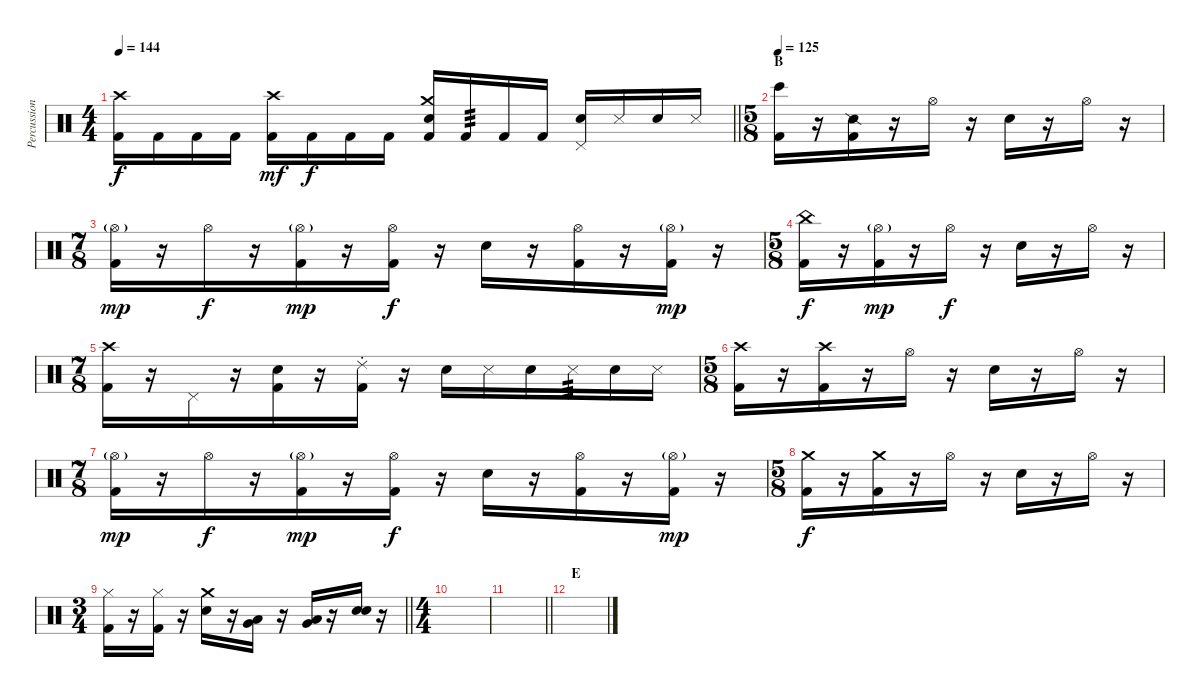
\track ("Percussion" "Percussion") {instrument percussion}
\staff {score}
\articulation defaults
\ts (4 4)
\tempo 144
\clef neutral
\barLineRight lightlight
\ks c
("Crash high (hit)" "Kick (hit) 2").16{dy f} "Kick (hit) 2".16 "Kick (hit) 2".16 "Kick (hit) 2".16 ("Crash high (hit)" "Kick (hit) 2").16{dy mf} "Kick (hit) 2".16{dy f} "Kick (hit) 2".16 "Kick (hit) 2".16 ("Crash medium (hit)" "Snare (hit) 2" "Kick (hit) 2").16 "Kick (hit) 2".16{tp 3} "Kick (hit) 2".16 "Kick (hit) 2".16 ("Pedal Hi-Hat (hit)" "Snare (hit) 2").16 "Metronome (hit)".16 "Snare (hit) 2".16 "Metronome (hit)".16 |
\ts (5 8)
\section ("" "B")
\tempo 125
("Bongo High (hit)" "Kick (hit) 2").16 r.16 ("Snare (side stick) 2" "Kick (hit) 2").16 r.16 "Hi-Hat (open)".16 r.16 "Snare (hit) 2".16 r.16 "Hi-Hat (open)".16 r.16 |
\ts (7 8)
("Hi-Hat (open)"{g} "Kick (hit) 2").16{dy mp} r.16 "Hi-Hat (open)".16{dy f} r.16 ("Hi-Hat (open)"{g} "Kick (hit) 2").16{dy mp} r.16 ("Hi-Hat (open)" "Kick (hit) 2").16{dy f} r.16 "Snare (hit) 2".16 r.16 ("Hi-Hat (open)" "Kick (hit) 2").16 r.16 ("Hi-Hat (open)"{g} "Kick (hit) 2").16{dy mp} r.16 |
\ts (5 8)
("China (hit)" "Kick (hit) 2").16{dy f} r.16 ("Hi-Hat (open)"{g} "Kick (hit) 2").16{dy mp} r.16 "Hi-Hat (open)".16{dy f} r.16 "Snare (hit) 2".16 r.16 "Hi-Hat (open)".16 r.16 |
\ts (7 8)
("Crash high (hit)" "Kick (hit) 2").16 r.16 "Pedal Hi-Hat (hit)".16 r.16 ("Snare (hit)" "Kick (hit) 2").16 r.16 ("Ride (choke) 2" "Kick (hit) 2").16 r.16 "Snare (hit) 2".16 "Metronome (hit)".16 "Snare (hit) 2".16 "Metronome (hit)".16{tp 3} "Snare (hit) 2".16 "Metronome (hit)".16 |
\ts (5 8)
("Crash high (hit)" "Kick (hit) 2").16 r.16 ("Crash high (hit)" "Kick (hit) 2").16 r.16 "Hi-Hat (open)".16 r.16 "Snare (hit) 2".16 r.16 "Hi-Hat (open)".16 r.16 |
\ts (7 8)
("Hi-Hat (open)"{g} "Kick (hit) 2").16{dy mp} r.16 "Hi-Hat (open)".16{dy f} r.16 ("Hi-Hat (open)"{g} "Kick (hit) 2").16{dy mp} r.16 ("Hi-Hat (open)" "Kick (hit) 2").16{dy f} r.16 "Snare (hit) 2".16 r.16 ("Hi-Hat (open)" "Kick (hit) 2").16 r.16 ("Hi-Hat (open)"{g} "Kick (hit) 2").16{dy mp} r.16 |
\ts (5 8)
("Crash medium (hit)" "Kick (hit) 2").16{dy f} r.16 ("Crash medium (hit)" "Kick (hit) 2").16 r.16 "Hi-Hat (open)".16 r.16 "Snare (hit) 2".16 r.16 "Hi-Hat (open)".16 r.16 |
\ts (3 4)
\barLineRight lightlight
("Hi-Hat (closed)" "Kick (hit) 2").16 r.16 ("Hi-Hat (closed)" "Kick (hit) 2").16 r.16 ("Crash medium (hit)" "Snare (hit) 2").16 r.16 ("Low Tom (hit)" "Very Low Tom (hit)").16{bu 60} r.16 ("Low Tom (hit)" "Very Low Tom (hit)").16{bu 60} r.16 ("Snare (hit)" "Snare (hit) 2").16 r.16 |
\ts (4 4)
|
\barLineRight lightlight
|
\section ("" "E")
